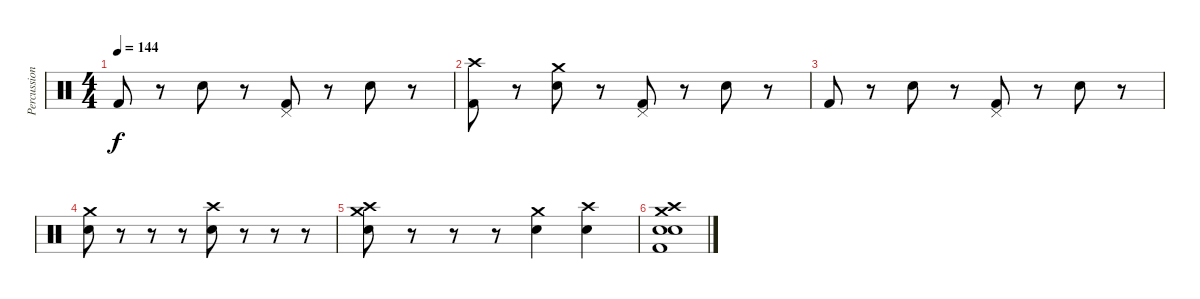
\track ("Percussion" "Percussion") {instrument percussion}
\staff {score}
\articulation defaults
\ts (4 4)
\tempo 144
\clef neutral
\ks c "Kick (hit) 2".8{dy f}
r.8 "Snare (hit) 2".8 r.8 ("Pedal Hi-Hat (hit)" "Kick (hit) 2").8 r.8 "Snare (hit) 2".8 r.8 |
("Kick (hit) 2" "Crash high (hit)").8 r.8 ("Snare (hit) 2" "Crash medium (hit)").8 r.8 ("Pedal Hi-Hat (hit)" "Kick (hit) 2").8 r.8 "Snare (hit) 2".8 r.8 |
"Kick (hit) 2".8 r.8 "Snare (hit) 2".8 r.8 ("Pedal Hi-Hat (hit)" "Kick (hit) 2").8 r.8 "Snare (hit) 2".8 r.8 |
("Snare (hit) 2" "Crash medium (hit)").8 r.8 r.8 r.8 ("Snare (hit) 2" "Crash high (hit)").8 r.8 r.8 r.8 |
("Snare (hit) 2" "Crash high (hit)" "Crash medium (hit)").8 r.8 r.8 r.8 ("Snare (hit) 2" "Crash medium (hit)").4 ("Snare (hit) 2" "Crash high (hit)").4 |
("Kick (hit) 2" "Snare (hit) 2" "Crash high (hit)" "Crash medium (hit)" "Electric Snare (hit)").1
